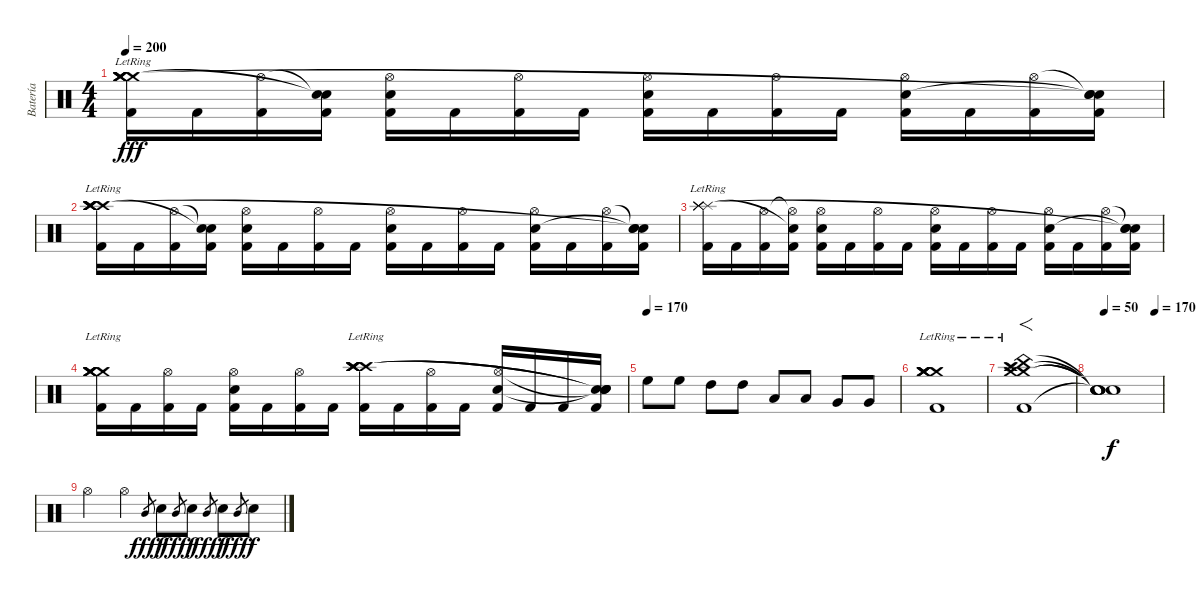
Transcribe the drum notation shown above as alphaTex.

\track ("Batería" "Batería") {instrument percussion}
\staff {score}
\articulation defaults
\ts (4 4)
\tempo 200
\clef neutral
\ks c
("Kick (hit) 2" "Crash medium (hit)"{lr} "Crash medium (hit)"{lr} "Crash medium (hit)"{lr} "Crash medium (hit)"{lr} "Crash medium (hit)"{lr}).16{dy fff} "Kick (hit) 2".16 ("Kick (hit) 2" "Hi-Hat (open)").16 ("Kick (hit) 2" "Snare (hit)"{t} "Snare (hit)"{t}).16 ("Kick (hit) 2" "Hi-Hat (open)" "Electric Snare (hit)").16 "Kick (hit) 2".16 ("Kick (hit) 2" "Hi-Hat (open)").16 "Kick (hit) 2".16 ("Kick (hit) 2" "Hi-Hat (open)" "Electric Snare (hit)").16 "Kick (hit) 2".16 ("Kick (hit) 2" "Hi-Hat (open)").16 "Kick (hit) 2".16 ("Kick (hit) 2" "Hi-Hat (open)" "Electric Snare (hit)").16 "Kick (hit) 2".16 ("Kick (hit) 2" "Hi-Hat (open)").16 ("Kick (hit) 2" "Snare (hit)"{t} "Snare (hit)"{t} "Snare (hit)"{t}).16 |
("Kick (hit) 2" "Crash high (hit)"{lr} "Crash high (hit)"{lr} "Crash high (hit)"{lr} "Crash high (hit)"{lr} "Crash high (hit)"{lr}).16 "Kick (hit) 2".16 ("Kick (hit) 2" "Hi-Hat (open)").16 ("Kick (hit) 2" "Snare (hit)"{t} "Snare (hit)"{t}).16 ("Kick (hit) 2" "Hi-Hat (open)" "Electric Snare (hit)").16 "Kick (hit) 2".16 ("Kick (hit) 2" "Hi-Hat (open)").16 "Kick (hit) 2".16 ("Kick (hit) 2" "Hi-Hat (open)" "Electric Snare (hit)").16 "Kick (hit) 2".16 ("Kick (hit) 2" "Hi-Hat (open)").16 "Kick (hit) 2".16 ("Kick (hit) 2" "Hi-Hat (open)" "Electric Snare (hit)").16 "Kick (hit) 2".16 ("Kick (hit) 2" "Hi-Hat (open)").16 ("Kick (hit) 2" "Snare (hit)"{t} "Snare (hit)"{t} "Snare (hit)"{t}).16 |
("Kick (hit) 2"{lr} "Splash (hit)"{lr} "Splash (hit)"{lr} "Splash (hit)"{lr} "Splash (hit)"{lr} "Splash (hit)"{lr}).16 "Kick (hit) 2".16 ("Kick (hit) 2" "Hi-Hat (open)").16 ("Kick (hit) 2" "Hi-Hat (open)"{t} "Snare (hit)"{t}).16 ("Kick (hit) 2" "Hi-Hat (open)" "Electric Snare (hit)").16 "Kick (hit) 2".16 ("Kick (hit) 2" "Hi-Hat (open)").16 "Kick (hit) 2".16 ("Kick (hit) 2" "Hi-Hat (open)" "Electric Snare (hit)").16 "Kick (hit) 2".16 ("Kick (hit) 2" "Hi-Hat (open)").16 "Kick (hit) 2".16 ("Kick (hit) 2" "Hi-Hat (open)" "Electric Snare (hit)").16 "Kick (hit) 2".16 ("Kick (hit) 2" "Hi-Hat (open)").16 ("Kick (hit) 2" "Snare (hit)"{t} "Snare (hit)"{t} "Snare (hit)"{t}).16 |
("Kick (hit) 2" "Crash medium (hit)"{lr} "Crash medium (hit)"{lr} "Crash medium (hit)"{lr} "Crash medium (hit)"{lr} "Crash medium (hit)"{lr}).16 "Kick (hit) 2".16 ("Kick (hit) 2" "Hi-Hat (open)").16 "Kick (hit) 2".16 ("Kick (hit) 2" "Hi-Hat (open)" "Electric Snare (hit)").16 "Kick (hit) 2".16 ("Kick (hit) 2" "Hi-Hat (open)").16 "Kick (hit) 2".16 ("Kick (hit) 2"{lr} "Crash high (hit)"{lr} "Crash high (hit)"{lr} "Crash high (hit)"{lr} "Crash high (hit)"{lr} "Crash high (hit)"{lr}).16 "Kick (hit) 2".16 ("Kick (hit) 2" "Hi-Hat (open)").16 "Kick (hit) 2".16 ("Kick (hit) 2" "Hi-Hat (open)" "Electric Snare (hit)").16 "Kick (hit) 2".16 "Kick (hit) 2".16 ("Kick (hit) 2" "Snare (hit)"{t} "Snare (hit)"{t} "Snare (hit)"{t} "Snare (hit)"{t}).16 |
\tempo (170)
"High Floor Tom (hit)".8 "High Floor Tom (hit)".8 "High Tom (hit)".8 "High Tom (hit)".8 "Low Tom (hit)".8 "Low Tom (hit)".8 "Very Low Tom (hit)".8 "Very Low Tom (hit)".8 |
("Kick (hit) 2"{lr} "Crash medium (hit)"{lr} "Crash medium (hit)"{lr} "Crash medium (hit)"{lr} "Crash medium (hit)"{lr} "Crash medium (hit)"{lr}).1 |
("Kick (hit) 2" "Splash (hit)"{lr} "China (hit)"{lr} "Crash medium (hit)"{lr} "Crash medium (hit)"{lr} "Crash high (hit)"{lr}).1{f} |
\tempo 50
\tempo (170 0.875)
("Snare (hit)"{t} "Snare (hit)"{t} "Snare (hit)"{t} "Snare (hit)"{t} "Snare (hit)"{t}).1{dy f} |
"Hi-Hat (open)".4 "Hi-Hat (open)".4 "Mid Tom (hit)".8{gr dy fff} "Electric Snare (hit)".8{dy f} "Mid Tom (hit)".8{gr dy fff} "Electric Snare (hit)".8{dy f} "Mid Tom (hit)".8{gr dy fff} "Electric Snare (hit)".8{dy f} "Mid Tom (hit)".8{gr dy fff} "Electric Snare (hit)".8{dy f}
